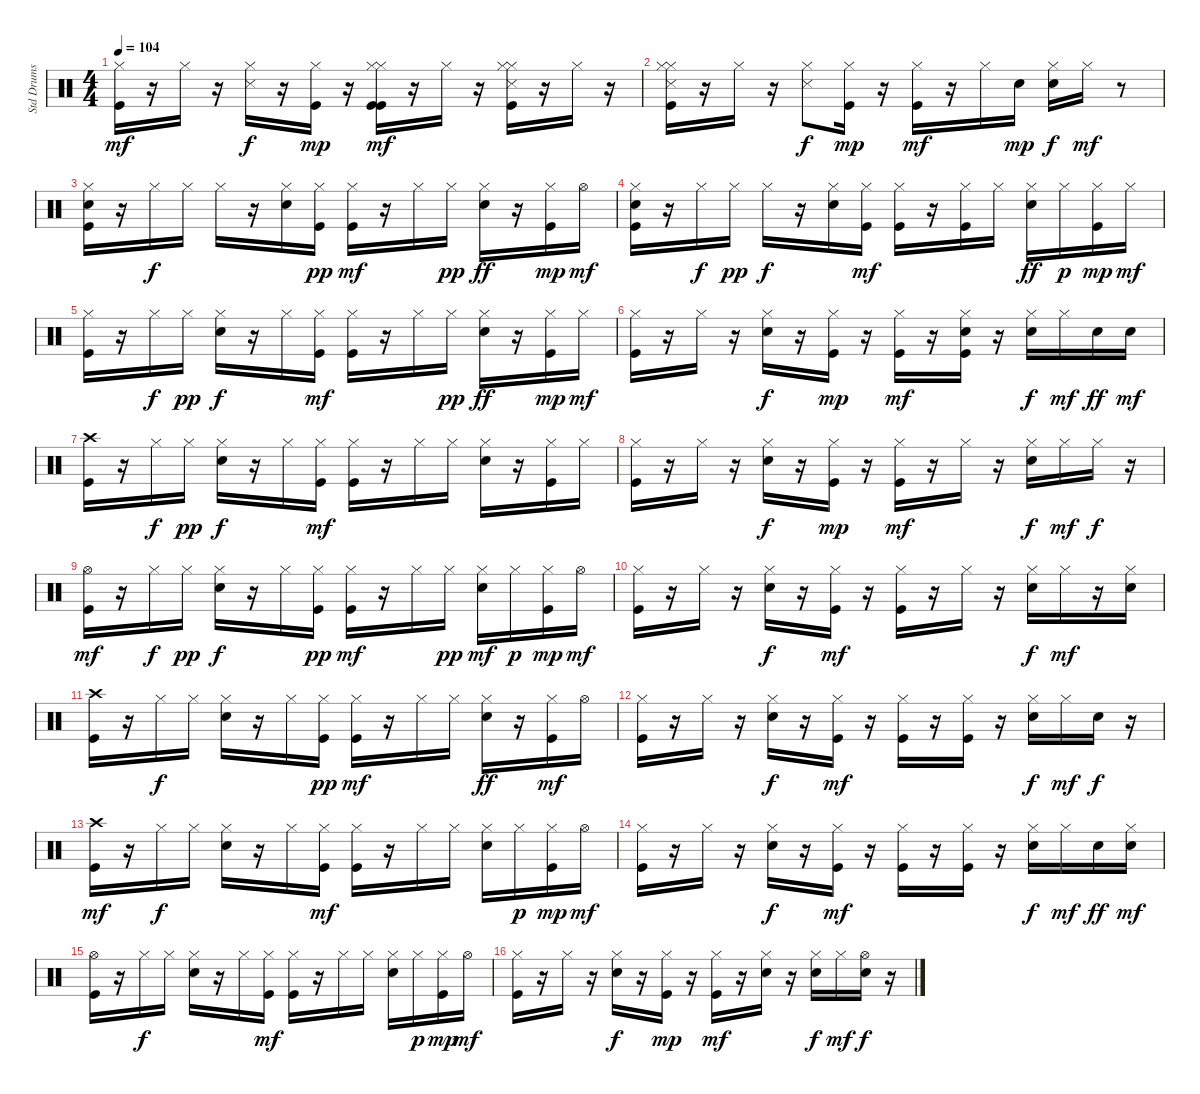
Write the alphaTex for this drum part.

\track ("Std Drums" "Std Drums") {instrument percussion}
\staff {score}
\articulation defaults
\ts (4 4)
\tempo 104
\clef neutral
\ks c
("Kick (hit)" "Hi-Hat (closed)").16{dy mf} r.16 "Hi-Hat (closed)".16 r.16 ("Snare (side stick) 3" "Hi-Hat (closed)").16{dy f} r.16 ("Hi-Hat (closed)" "Kick (hit)").16{dy mp} r.16 ("Hi-Hat (closed)" "Kick (hit)" "Kick (hit)" "Hi-Hat (closed)").16{dy mf} r.16 "Hi-Hat (closed)".16 r.16 ("Snare (side stick) 3" "Hi-Hat (closed)" "Kick (hit)" "Hi-Hat (closed)").16 r.16 "Hi-Hat (closed)".16 r.16 |
("Snare (side stick) 3" "Kick (hit)" "Hi-Hat (closed)" "Hi-Hat (closed)").16 r.16 "Hi-Hat (closed)".16 r.16 ("Snare (side stick) 3" "Hi-Hat (closed)").8{dy f} ("Hi-Hat (closed)" "Kick (hit)").16{dy mp} r.16 ("Hi-Hat (closed)" "Kick (hit)").16{dy mf} r.16 "Hi-Hat (closed)".16 "Snare (hit) 2".16{dy mp} ("Snare (hit) 2" "Hi-Hat (closed)").16{dy f} "Hi-Hat (closed)".16{dy mf} r.8 |
("Snare (hit) 2" "Kick (hit)" "Hi-Hat (closed)").16 r.16 "Hi-Hat (closed)".16{dy f} "Hi-Hat (closed)".16 "Hi-Hat (closed)".16 r.16 ("Snare (hit) 2" "Hi-Hat (closed)").16 ("Kick (hit)" "Hi-Hat (closed)").16{dy pp} ("Kick (hit)" "Hi-Hat (closed)").16{dy mf} r.16 "Hi-Hat (closed)".16 "Hi-Hat (closed)".16{dy pp} ("Snare (hit) 2" "Hi-Hat (closed)").16{dy ff} r.16 ("Kick (hit)" "Hi-Hat (closed)").16{dy mp} "Hi-Hat (open)".16{dy mf} |
("Snare (hit) 2" "Kick (hit)" "Hi-Hat (closed)").16 r.16 "Hi-Hat (closed)".16{dy f} "Hi-Hat (closed)".16{dy pp} "Hi-Hat (closed)".16{dy f} r.16 ("Hi-Hat (closed)" "Snare (hit) 2").16 ("Hi-Hat (closed)" "Kick (hit)").16{dy mf} ("Kick (hit)" "Hi-Hat (closed)").16 r.16 ("Hi-Hat (closed)" "Kick (hit)").16 "Hi-Hat (closed)".16 ("Snare (hit) 2" "Hi-Hat (closed)").16{dy ff} "Hi-Hat (closed)".16{dy p} ("Kick (hit)" "Hi-Hat (closed)").16{dy mp} "Hi-Hat (closed)".16{dy mf} |
("Kick (hit)" "Hi-Hat (closed)").16 r.16 "Hi-Hat (closed)".16{dy f} "Hi-Hat (closed)".16{dy pp} ("Hi-Hat (closed)" "Snare (hit) 2").16{dy f} r.16 "Hi-Hat (closed)".16 ("Kick (hit)" "Hi-Hat (closed)").16{dy mf} ("Kick (hit)" "Hi-Hat (closed)").16 r.16 "Hi-Hat (closed)".16 "Hi-Hat (closed)".16{dy pp} ("Snare (hit) 2" "Hi-Hat (closed)").16{dy ff} r.16 ("Kick (hit)" "Hi-Hat (closed)").16{dy mp} "Hi-Hat (closed)".16{dy mf} |
("Kick (hit)" "Hi-Hat (closed)").16 r.16 "Hi-Hat (closed)".16 r.16 ("Hi-Hat (closed)" "Snare (hit) 2").16{dy f} r.16 ("Hi-Hat (closed)" "Kick (hit)").16{dy mp} r.16 ("Hi-Hat (closed)" "Kick (hit)").16{dy mf} r.16 ("Snare (hit) 2" "Hi-Hat (closed)" "Kick (hit)").16 r.16 ("Snare (hit) 2" "Hi-Hat (closed)").16{dy f} "Hi-Hat (closed)".16{dy mf} "Snare (hit) 2".16{dy ff} "Snare (hit) 2".16{dy mf} |
("Kick (hit)" "Crash high (hit)").16 r.16 "Hi-Hat (closed)".16{dy f} "Hi-Hat (closed)".16{dy pp} ("Hi-Hat (closed)" "Snare (hit) 2").16{dy f} r.16 "Hi-Hat (closed)".16 ("Hi-Hat (closed)" "Kick (hit)").16{dy mf} ("Hi-Hat (closed)" "Kick (hit)").16 r.16 "Hi-Hat (closed)".16 "Hi-Hat (closed)".16 ("Hi-Hat (closed)" "Snare (hit) 2").16 r.16 ("Hi-Hat (closed)" "Kick (hit)").16 "Hi-Hat (closed)".16 |
("Kick (hit)" "Hi-Hat (closed)").16 r.16 "Hi-Hat (closed)".16 r.16 ("Snare (hit) 2" "Hi-Hat (closed)").16{dy f} r.16 ("Hi-Hat (closed)" "Kick (hit)").16{dy mp} r.16 ("Kick (hit)" "Hi-Hat (closed)").16{dy mf} r.16 "Hi-Hat (closed)".16 r.16 ("Hi-Hat (closed)" "Snare (hit) 2").16{dy f} "Hi-Hat (closed)".16{dy mf} "Hi-Hat (closed)".16{dy f} r.16 |
("Hi-Hat (open)" "Kick (hit)").16{dy mf} r.16 "Hi-Hat (closed)".16{dy f} "Hi-Hat (closed)".16{dy pp} ("Snare (hit) 2" "Hi-Hat (closed)").16{dy f} r.16 "Hi-Hat (closed)".16 ("Kick (hit)" "Hi-Hat (closed)").16{dy pp} ("Kick (hit)" "Hi-Hat (closed)").16{dy mf} r.16 "Hi-Hat (closed)".16 "Hi-Hat (closed)".16{dy pp} ("Hi-Hat (closed)" "Snare (hit) 2").16{dy mf} "Hi-Hat (closed)".16{dy p} ("Kick (hit)" "Hi-Hat (closed)").16{dy mp} "Hi-Hat (open)".16{dy mf} |
("Hi-Hat (closed)" "Kick (hit)").16 r.16 "Hi-Hat (closed)".16 r.16 ("Snare (hit) 2" "Hi-Hat (closed)").16{dy f} r.16 ("Kick (hit)" "Hi-Hat (closed)").16{dy mf} r.16 ("Kick (hit)" "Hi-Hat (closed)").16 r.16 "Hi-Hat (closed)".16 r.16 ("Hi-Hat (closed)" "Snare (hit) 2").16{dy f} "Hi-Hat (closed)".16{dy mf} r.16 ("Hi-Hat (closed)" "Snare (hit) 2").16 |
("Crash high (hit)" "Kick (hit)").16 r.16 "Hi-Hat (closed)".16{dy f} "Hi-Hat (closed)".16 ("Hi-Hat (closed)" "Snare (hit) 2").16 r.16 "Hi-Hat (closed)".16 ("Kick (hit)" "Hi-Hat (closed)").16{dy pp} ("Kick (hit)" "Hi-Hat (closed)").16{dy mf} r.16 "Hi-Hat (closed)".16 "Hi-Hat (closed)".16 ("Snare (hit) 2" "Hi-Hat (closed)").16{dy ff} r.16 ("Hi-Hat (closed)" "Kick (hit)").16{dy mf} "Hi-Hat (open)".16 |
("Kick (hit)" "Hi-Hat (closed)").16{volume 14} r.16 "Hi-Hat (closed)".16{volume 14} r.16 ("Hi-Hat (closed)" "Snare (hit) 2").16{dy f volume 13} r.16 ("Kick (hit)" "Hi-Hat (closed)").16{dy mf volume 13} r.16 ("Hi-Hat (closed)" "Kick (hit)").16{volume 13} r.16 ("Kick (hit)" "Hi-Hat (closed)").16{volume 13} r.16 ("Hi-Hat (closed)" "Snare (hit) 2").16{dy f volume 13} "Hi-Hat (closed)".16{dy mf volume 13} "Snare (hit) 2".16{dy f} r.16 |
("Crash high (hit)" "Kick (hit)").16{dy mf volume 12} r.16 "Hi-Hat (closed)".16{dy f volume 12} "Hi-Hat (closed)".16 ("Hi-Hat (closed)" "Snare (hit) 2").16{volume 12} r.16 "Hi-Hat (closed)".16{volume 12} ("Kick (hit)" "Hi-Hat (closed)").16{dy mf volume 12} ("Kick (hit)" "Hi-Hat (closed)").16 r.16 "Hi-Hat (closed)".16{volume 12} "Hi-Hat (closed)".16{volume 12} ("Hi-Hat (closed)" "Snare (hit) 2").16 "Hi-Hat (closed)".16{dy p volume 12} ("Kick (hit)" "Hi-Hat (closed)").16{dy mp volume 11} "Hi-Hat (open)".16{dy mf} |
("Hi-Hat (closed)" "Kick (hit)").16{volume 11} r.16 "Hi-Hat (closed)".16{volume 11} r.16 ("Hi-Hat (closed)" "Snare (hit) 2").16{dy f volume 11} r.16 ("Kick (hit)" "Hi-Hat (closed)").16{dy mf volume 11} r.16 ("Kick (hit)" "Hi-Hat (closed)").16{volume 11} r.16 ("Hi-Hat (closed)" "Kick (hit)").16{volume 10} r.16 ("Snare (hit) 2" "Hi-Hat (closed)").16{dy f volume 10} "Hi-Hat (closed)".16{dy mf} "Snare (hit) 2".16{dy ff volume 10} ("Snare (hit) 2" "Hi-Hat (closed)").16{dy mf} |
("Hi-Hat (open)" "Kick (hit)").16{volume 10} r.16 "Hi-Hat (closed)".16{dy f volume 10} "Hi-Hat (closed)".16{volume 10} ("Hi-Hat (closed)" "Snare (hit) 2").16 r.16 "Hi-Hat (closed)".16{volume 10} ("Hi-Hat (closed)" "Kick (hit)").16{dy mf volume 9} ("Kick (hit)" "Hi-Hat (closed)").16 r.16 "Hi-Hat (closed)".16{volume 9} "Hi-Hat (closed)".16{volume 9} ("Hi-Hat (closed)" "Snare (hit) 2").16{volume 9} "Hi-Hat (closed)".16{dy p} ("Kick (hit)" "Hi-Hat (closed)").16{dy mp volume 9} "Hi-Hat (open)".16{dy mf} |
("Hi-Hat (closed)" "Kick (hit)").16{volume 9} r.16 "Hi-Hat (closed)".16{volume 9} r.16 ("Hi-Hat (closed)" "Snare (hit) 2").16{dy f volume 8} r.16 ("Hi-Hat (closed)" "Kick (hit)").16{dy mp volume 8} r.16 ("Kick (hit)" "Hi-Hat (closed)").16{dy mf volume 8} r.16 ("Snare (hit) 2" "Hi-Hat (closed)").16{volume 8} r.16 ("Snare (hit) 2" "Hi-Hat (closed)").16{dy f volume 8} "Hi-Hat (closed)".16{dy mf} ("Snare (hit) 2" "Hi-Hat (open)").16{dy f volume 8} r.16
